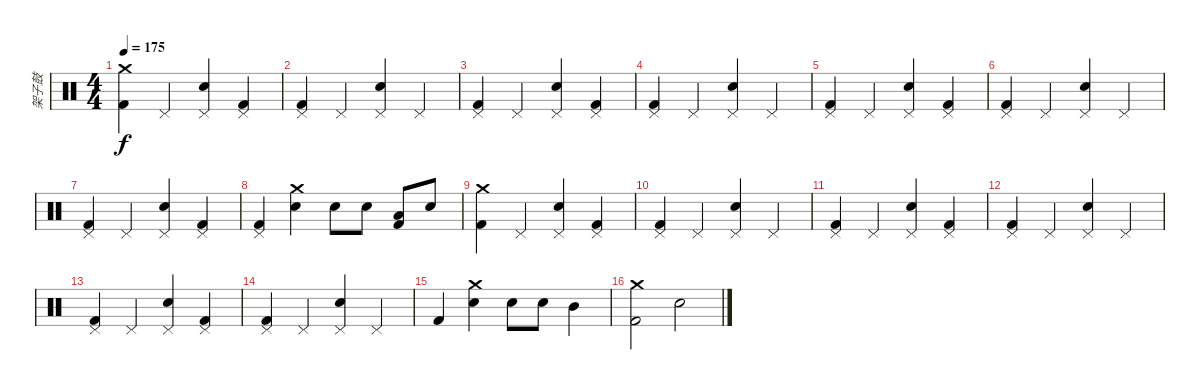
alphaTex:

\track ("架子鼓" "架子鼓") {instrument percussion}
\staff {score}
\articulation defaults
\ts (4 4)
\tempo 175
\clef neutral
\ks c
("Crash medium (hit)" "Kick (hit) 2").4{dy f} "Pedal Hi-Hat (hit)".4 ("Pedal Hi-Hat (hit)" "Electric Snare (hit)").4 ("Pedal Hi-Hat (hit)" "Kick (hit) 2").4 |
("Pedal Hi-Hat (hit)" "Kick (hit) 2").4 "Pedal Hi-Hat (hit)".4 ("Pedal Hi-Hat (hit)" "Electric Snare (hit)").4 "Pedal Hi-Hat (hit)".4 |
("Pedal Hi-Hat (hit)" "Kick (hit) 2").4 "Pedal Hi-Hat (hit)".4 ("Pedal Hi-Hat (hit)" "Electric Snare (hit)").4 ("Pedal Hi-Hat (hit)" "Kick (hit) 2").4 |
("Pedal Hi-Hat (hit)" "Kick (hit) 2").4 "Pedal Hi-Hat (hit)".4 ("Pedal Hi-Hat (hit)" "Electric Snare (hit)").4 "Pedal Hi-Hat (hit)".4 |
("Pedal Hi-Hat (hit)" "Kick (hit) 2").4 "Pedal Hi-Hat (hit)".4 ("Pedal Hi-Hat (hit)" "Electric Snare (hit)").4 ("Pedal Hi-Hat (hit)" "Kick (hit) 2").4 |
("Pedal Hi-Hat (hit)" "Kick (hit) 2").4 "Pedal Hi-Hat (hit)".4 ("Pedal Hi-Hat (hit)" "Electric Snare (hit)").4 "Pedal Hi-Hat (hit)".4 |
("Pedal Hi-Hat (hit)" "Kick (hit) 2").4 "Pedal Hi-Hat (hit)".4 ("Pedal Hi-Hat (hit)" "Electric Snare (hit)").4 ("Pedal Hi-Hat (hit)" "Kick (hit) 2").4 |
("Pedal Hi-Hat (hit)" "Kick (hit) 2").4 ("Crash medium (hit)" "Electric Snare (hit)").4 "Electric Snare (hit)".8 "Electric Snare (hit)".8 ("Kick (hit) 2" "Low Tom (hit)").8 "Electric Snare (hit)".8 |
("Crash medium (hit)" "Kick (hit) 2").4 "Pedal Hi-Hat (hit)".4 ("Pedal Hi-Hat (hit)" "Electric Snare (hit)").4 ("Pedal Hi-Hat (hit)" "Kick (hit) 2").4 |
("Pedal Hi-Hat (hit)" "Kick (hit) 2").4 "Pedal Hi-Hat (hit)".4 ("Pedal Hi-Hat (hit)" "Electric Snare (hit)").4 "Pedal Hi-Hat (hit)".4 |
("Pedal Hi-Hat (hit)" "Kick (hit) 2").4 "Pedal Hi-Hat (hit)".4 ("Pedal Hi-Hat (hit)" "Electric Snare (hit)").4 ("Pedal Hi-Hat (hit)" "Kick (hit) 2").4 |
("Pedal Hi-Hat (hit)" "Kick (hit) 2").4 "Pedal Hi-Hat (hit)".4 ("Pedal Hi-Hat (hit)" "Electric Snare (hit)").4 "Pedal Hi-Hat (hit)".4 |
("Pedal Hi-Hat (hit)" "Kick (hit) 2").4 "Pedal Hi-Hat (hit)".4 ("Pedal Hi-Hat (hit)" "Electric Snare (hit)").4 ("Pedal Hi-Hat (hit)" "Kick (hit) 2").4 |
("Pedal Hi-Hat (hit)" "Kick (hit) 2").4 "Pedal Hi-Hat (hit)".4 ("Pedal Hi-Hat (hit)" "Electric Snare (hit)").4 "Pedal Hi-Hat (hit)".4 |
"Kick (hit) 2".4 ("Crash medium (hit)" "Electric Snare (hit)").4 "Electric Snare (hit)".8 "Electric Snare (hit)".8 "Mid Tom (hit)".4 |
("Crash medium (hit)" "Kick (hit) 2").2 "Electric Snare (hit)".2
